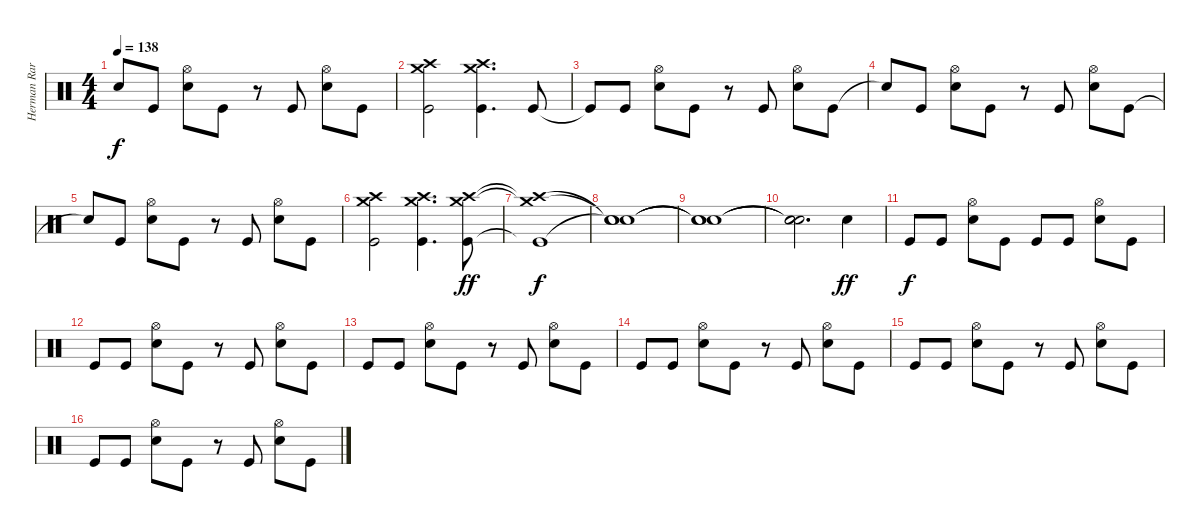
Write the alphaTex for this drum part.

\track ("Herman Rarebell Drums" "Herman Rar") {instrument percussion}
\staff {score}
\articulation defaults
\ts (4 4)
\tempo 138
\clef neutral
\ks c "Snare (hit)"{t}.8{dy f} "Kick (hit)".8
("Hi-Hat (open)" "Snare (hit) 2").8 "Kick (hit)".8 r.8 "Kick (hit)".8 ("Hi-Hat (open)" "Snare (hit) 2").8 "Kick (hit)".8 |
("Crash high (hit)" "Crash medium (hit)" "Kick (hit)").2 ("Crash high (hit)" "Crash medium (hit)" "Kick (hit)").4{d} "Kick (hit)".8 |
"Kick (hit)"{t}.8 "Kick (hit)".8 ("Hi-Hat (open)" "Snare (hit) 2").8 "Kick (hit)".8 r.8 "Kick (hit)".8 ("Hi-Hat (open)" "Snare (hit) 2").8 "Kick (hit)".8 |
"Snare (hit)"{t}.8 "Kick (hit)".8 ("Hi-Hat (open)" "Snare (hit) 2").8 "Kick (hit)".8 r.8 "Kick (hit)".8 ("Hi-Hat (open)" "Snare (hit) 2").8 "Kick (hit)".8 |
"Snare (hit)"{t}.8 "Kick (hit)".8 ("Hi-Hat (open)" "Snare (hit) 2").8 "Kick (hit)".8 r.8 "Kick (hit)".8 ("Hi-Hat (open)" "Snare (hit) 2").8 "Kick (hit)".8 |
("Crash high (hit)" "Crash medium (hit)" "Kick (hit)").2 ("Crash high (hit)" "Crash medium (hit)" "Kick (hit)").4{d} ("Crash high (hit)" "Crash medium (hit)" "Kick (hit)").8{dy ff} |
("Crash high (hit)"{t} "Crash medium (hit)"{t} "Kick (hit)"{t}).1{dy f} |
("Snare (hit)"{t} "Snare (hit)"{t} "Snare (hit)"{t}).1 |
("Snare (hit)"{t} "Snare (hit)"{t} "Snare (hit)"{t}).1 |
("Snare (hit)"{t} "Snare (hit)"{t} "Snare (hit)"{t}).2{d} "Snare (hit) 2".4{dy ff} |
"Kick (hit)".8{dy f} "Kick (hit)".8 ("Hi-Hat (open)" "Snare (hit) 2").8 "Kick (hit)".8 "Kick (hit)".8 "Kick (hit)".8 ("Hi-Hat (open)" "Snare (hit) 2").8 "Kick (hit)".8 |
"Kick (hit)".8 "Kick (hit)".8 ("Hi-Hat (open)" "Snare (hit) 2").8 "Kick (hit)".8 r.8 "Kick (hit)".8 ("Hi-Hat (open)" "Snare (hit) 2").8 "Kick (hit)".8 |
"Kick (hit)".8 "Kick (hit)".8 ("Hi-Hat (open)" "Snare (hit) 2").8 "Kick (hit)".8 r.8 "Kick (hit)".8 ("Hi-Hat (open)" "Snare (hit) 2").8 "Kick (hit)".8 |
"Kick (hit)".8 "Kick (hit)".8 ("Hi-Hat (open)" "Snare (hit) 2").8 "Kick (hit)".8 r.8 "Kick (hit)".8 ("Hi-Hat (open)" "Snare (hit) 2").8 "Kick (hit)".8 |
"Kick (hit)".8 "Kick (hit)".8 ("Hi-Hat (open)" "Snare (hit) 2").8 "Kick (hit)".8 r.8 "Kick (hit)".8 ("Hi-Hat (open)" "Snare (hit) 2").8 "Kick (hit)".8 |
"Kick (hit)".8 "Kick (hit)".8 ("Hi-Hat (open)" "Snare (hit) 2").8 "Kick (hit)".8 r.8 "Kick (hit)".8 ("Hi-Hat (open)" "Snare (hit) 2").8 "Kick (hit)".8
